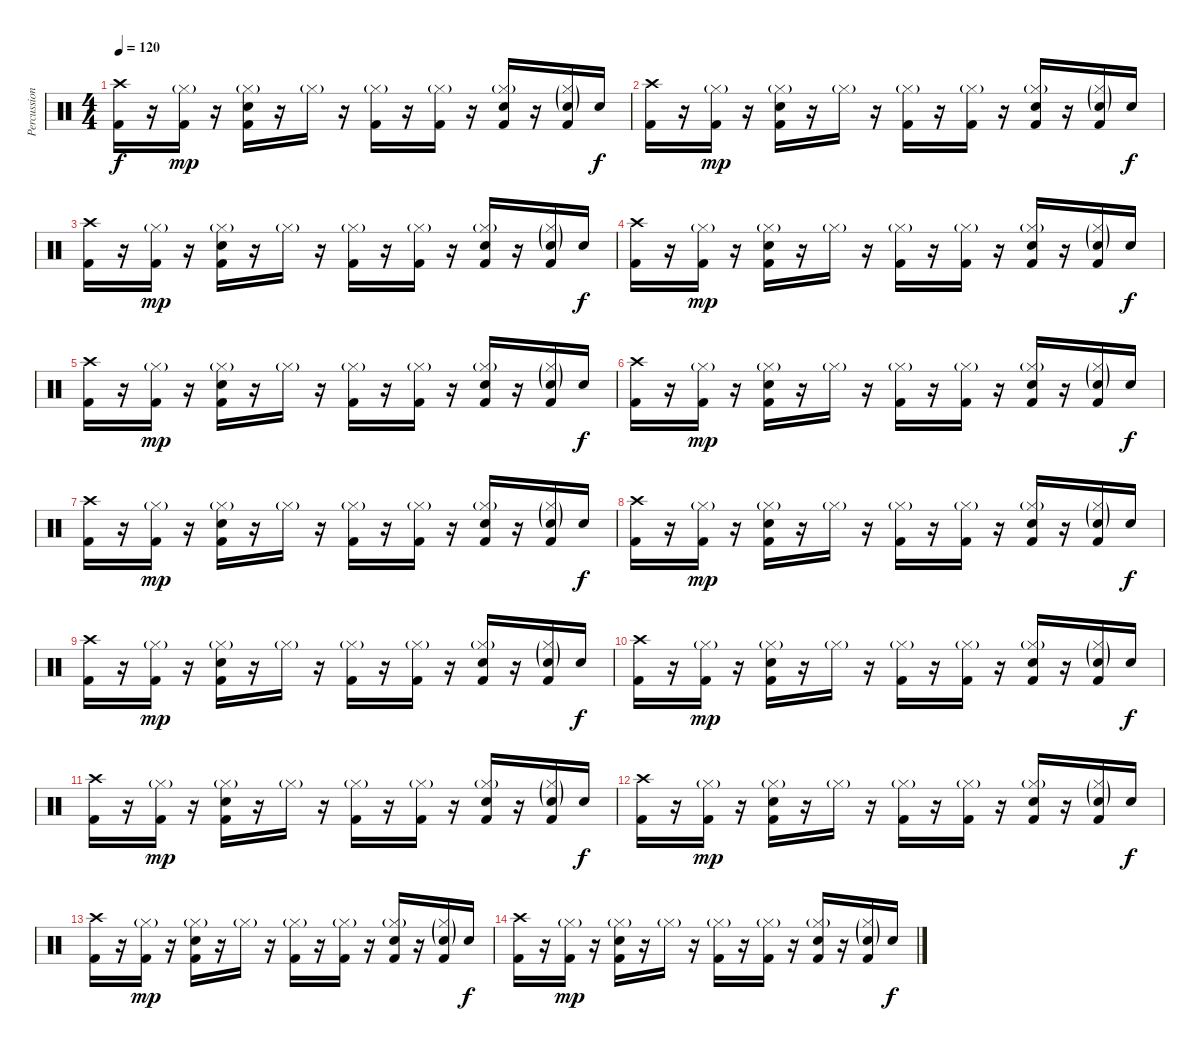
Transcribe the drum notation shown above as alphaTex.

\track ("Percussion" "Percussion") {instrument percussion}
\staff {score}
\articulation defaults
\ts (4 4)
\tempo 120
\clef neutral
\ks c
("Crash high (hit)" "Kick (hit) 2").16{dy f} r.16 ("Hi-Hat (closed)"{g} "Kick (hit) 2").16{dy mp} r.16 ("Hi-Hat (closed)"{g} "Snare (hit) 2" "Kick (hit) 2").16 r.16 "Hi-Hat (closed)"{g}.16 r.16 ("Hi-Hat (closed)"{g} "Kick (hit) 2").16 r.16 ("Hi-Hat (closed)"{g} "Kick (hit) 2").16 r.16 ("Hi-Hat (closed)"{g} "Snare (hit) 2" "Kick (hit) 2").16 r.16 ("Hi-Hat (closed)"{g} "Snare (hit) 2"{g} "Kick (hit) 2").16 "Snare (hit) 2".16{dy f} |
("Crash high (hit)" "Kick (hit) 2").16 r.16 ("Hi-Hat (closed)"{g} "Kick (hit) 2").16{dy mp} r.16 ("Hi-Hat (closed)"{g} "Snare (hit) 2" "Kick (hit) 2").16 r.16 "Hi-Hat (closed)"{g}.16 r.16 ("Hi-Hat (closed)"{g} "Kick (hit) 2").16 r.16 ("Hi-Hat (closed)"{g} "Kick (hit) 2").16 r.16 ("Hi-Hat (closed)"{g} "Snare (hit) 2" "Kick (hit) 2").16 r.16 ("Hi-Hat (closed)"{g} "Snare (hit) 2"{g} "Kick (hit) 2").16 "Snare (hit) 2".16{dy f} |
("Crash high (hit)" "Kick (hit) 2").16 r.16 ("Hi-Hat (closed)"{g} "Kick (hit) 2").16{dy mp} r.16 ("Hi-Hat (closed)"{g} "Snare (hit) 2" "Kick (hit) 2").16 r.16 "Hi-Hat (closed)"{g}.16 r.16 ("Hi-Hat (closed)"{g} "Kick (hit) 2").16 r.16 ("Hi-Hat (closed)"{g} "Kick (hit) 2").16 r.16 ("Hi-Hat (closed)"{g} "Snare (hit) 2" "Kick (hit) 2").16 r.16 ("Hi-Hat (closed)"{g} "Snare (hit) 2"{g} "Kick (hit) 2").16 "Snare (hit) 2".16{dy f} |
("Crash high (hit)" "Kick (hit) 2").16 r.16 ("Hi-Hat (closed)"{g} "Kick (hit) 2").16{dy mp} r.16 ("Hi-Hat (closed)"{g} "Snare (hit) 2" "Kick (hit) 2").16 r.16 "Hi-Hat (closed)"{g}.16 r.16 ("Hi-Hat (closed)"{g} "Kick (hit) 2").16 r.16 ("Hi-Hat (closed)"{g} "Kick (hit) 2").16 r.16 ("Hi-Hat (closed)"{g} "Snare (hit) 2" "Kick (hit) 2").16 r.16 ("Hi-Hat (closed)"{g} "Snare (hit) 2"{g} "Kick (hit) 2").16 "Snare (hit) 2".16{dy f} |
("Crash high (hit)" "Kick (hit) 2").16 r.16 ("Hi-Hat (closed)"{g} "Kick (hit) 2").16{dy mp} r.16 ("Hi-Hat (closed)"{g} "Snare (hit) 2" "Kick (hit) 2").16 r.16 "Hi-Hat (closed)"{g}.16 r.16 ("Hi-Hat (closed)"{g} "Kick (hit) 2").16 r.16 ("Hi-Hat (closed)"{g} "Kick (hit) 2").16 r.16 ("Hi-Hat (closed)"{g} "Snare (hit) 2" "Kick (hit) 2").16 r.16 ("Hi-Hat (closed)"{g} "Snare (hit) 2"{g} "Kick (hit) 2").16 "Snare (hit) 2".16{dy f} |
("Crash high (hit)" "Kick (hit) 2").16 r.16 ("Hi-Hat (closed)"{g} "Kick (hit) 2").16{dy mp} r.16 ("Hi-Hat (closed)"{g} "Snare (hit) 2" "Kick (hit) 2").16 r.16 "Hi-Hat (closed)"{g}.16 r.16 ("Hi-Hat (closed)"{g} "Kick (hit) 2").16 r.16 ("Hi-Hat (closed)"{g} "Kick (hit) 2").16 r.16 ("Hi-Hat (closed)"{g} "Snare (hit) 2" "Kick (hit) 2").16 r.16 ("Hi-Hat (closed)"{g} "Snare (hit) 2"{g} "Kick (hit) 2").16 "Snare (hit) 2".16{dy f} |
("Crash high (hit)" "Kick (hit) 2").16 r.16 ("Hi-Hat (closed)"{g} "Kick (hit) 2").16{dy mp} r.16 ("Hi-Hat (closed)"{g} "Snare (hit) 2" "Kick (hit) 2").16 r.16 "Hi-Hat (closed)"{g}.16 r.16 ("Hi-Hat (closed)"{g} "Kick (hit) 2").16 r.16 ("Hi-Hat (closed)"{g} "Kick (hit) 2").16 r.16 ("Hi-Hat (closed)"{g} "Snare (hit) 2" "Kick (hit) 2").16 r.16 ("Hi-Hat (closed)"{g} "Snare (hit) 2"{g} "Kick (hit) 2").16 "Snare (hit) 2".16{dy f} |
("Crash high (hit)" "Kick (hit) 2").16 r.16 ("Hi-Hat (closed)"{g} "Kick (hit) 2").16{dy mp} r.16 ("Hi-Hat (closed)"{g} "Snare (hit) 2" "Kick (hit) 2").16 r.16 "Hi-Hat (closed)"{g}.16 r.16 ("Hi-Hat (closed)"{g} "Kick (hit) 2").16 r.16 ("Hi-Hat (closed)"{g} "Kick (hit) 2").16 r.16 ("Hi-Hat (closed)"{g} "Snare (hit) 2" "Kick (hit) 2").16 r.16 ("Hi-Hat (closed)"{g} "Snare (hit) 2"{g} "Kick (hit) 2").16 "Snare (hit) 2".16{dy f} |
("Crash high (hit)" "Kick (hit) 2").16 r.16 ("Hi-Hat (closed)"{g} "Kick (hit) 2").16{dy mp} r.16 ("Hi-Hat (closed)"{g} "Snare (hit) 2" "Kick (hit) 2").16 r.16 "Hi-Hat (closed)"{g}.16 r.16 ("Hi-Hat (closed)"{g} "Kick (hit) 2").16 r.16 ("Hi-Hat (closed)"{g} "Kick (hit) 2").16 r.16 ("Hi-Hat (closed)"{g} "Snare (hit) 2" "Kick (hit) 2").16 r.16 ("Hi-Hat (closed)"{g} "Snare (hit) 2"{g} "Kick (hit) 2").16 "Snare (hit) 2".16{dy f} |
("Crash high (hit)" "Kick (hit) 2").16 r.16 ("Hi-Hat (closed)"{g} "Kick (hit) 2").16{dy mp} r.16 ("Hi-Hat (closed)"{g} "Snare (hit) 2" "Kick (hit) 2").16 r.16 "Hi-Hat (closed)"{g}.16 r.16 ("Hi-Hat (closed)"{g} "Kick (hit) 2").16 r.16 ("Hi-Hat (closed)"{g} "Kick (hit) 2").16 r.16 ("Hi-Hat (closed)"{g} "Snare (hit) 2" "Kick (hit) 2").16 r.16 ("Hi-Hat (closed)"{g} "Snare (hit) 2"{g} "Kick (hit) 2").16 "Snare (hit) 2".16{dy f} |
("Crash high (hit)" "Kick (hit) 2").16 r.16 ("Hi-Hat (closed)"{g} "Kick (hit) 2").16{dy mp} r.16 ("Hi-Hat (closed)"{g} "Snare (hit) 2" "Kick (hit) 2").16 r.16 "Hi-Hat (closed)"{g}.16 r.16 ("Hi-Hat (closed)"{g} "Kick (hit) 2").16 r.16 ("Hi-Hat (closed)"{g} "Kick (hit) 2").16 r.16 ("Hi-Hat (closed)"{g} "Snare (hit) 2" "Kick (hit) 2").16 r.16 ("Hi-Hat (closed)"{g} "Snare (hit) 2"{g} "Kick (hit) 2").16 "Snare (hit) 2".16{dy f} |
("Crash high (hit)" "Kick (hit) 2").16 r.16 ("Hi-Hat (closed)"{g} "Kick (hit) 2").16{dy mp} r.16 ("Hi-Hat (closed)"{g} "Snare (hit) 2" "Kick (hit) 2").16 r.16 "Hi-Hat (closed)"{g}.16 r.16 ("Hi-Hat (closed)"{g} "Kick (hit) 2").16 r.16 ("Hi-Hat (closed)"{g} "Kick (hit) 2").16 r.16 ("Hi-Hat (closed)"{g} "Snare (hit) 2" "Kick (hit) 2").16 r.16 ("Hi-Hat (closed)"{g} "Snare (hit) 2"{g} "Kick (hit) 2").16 "Snare (hit) 2".16{dy f} |
("Crash high (hit)" "Kick (hit) 2").16 r.16 ("Hi-Hat (closed)"{g} "Kick (hit) 2").16{dy mp} r.16 ("Hi-Hat (closed)"{g} "Snare (hit) 2" "Kick (hit) 2").16 r.16 "Hi-Hat (closed)"{g}.16 r.16 ("Hi-Hat (closed)"{g} "Kick (hit) 2").16 r.16 ("Hi-Hat (closed)"{g} "Kick (hit) 2").16 r.16 ("Hi-Hat (closed)"{g} "Snare (hit) 2" "Kick (hit) 2").16 r.16 ("Hi-Hat (closed)"{g} "Snare (hit) 2"{g} "Kick (hit) 2").16 "Snare (hit) 2".16{dy f} |
("Crash high (hit)" "Kick (hit) 2").16 r.16 ("Hi-Hat (closed)"{g} "Kick (hit) 2").16{dy mp} r.16 ("Hi-Hat (closed)"{g} "Snare (hit) 2" "Kick (hit) 2").16 r.16 "Hi-Hat (closed)"{g}.16 r.16 ("Hi-Hat (closed)"{g} "Kick (hit) 2").16 r.16 ("Hi-Hat (closed)"{g} "Kick (hit) 2").16 r.16 ("Hi-Hat (closed)"{g} "Snare (hit) 2" "Kick (hit) 2").16 r.16 ("Hi-Hat (closed)"{g} "Snare (hit) 2"{g} "Kick (hit) 2").16 "Snare (hit) 2".16{dy f}
